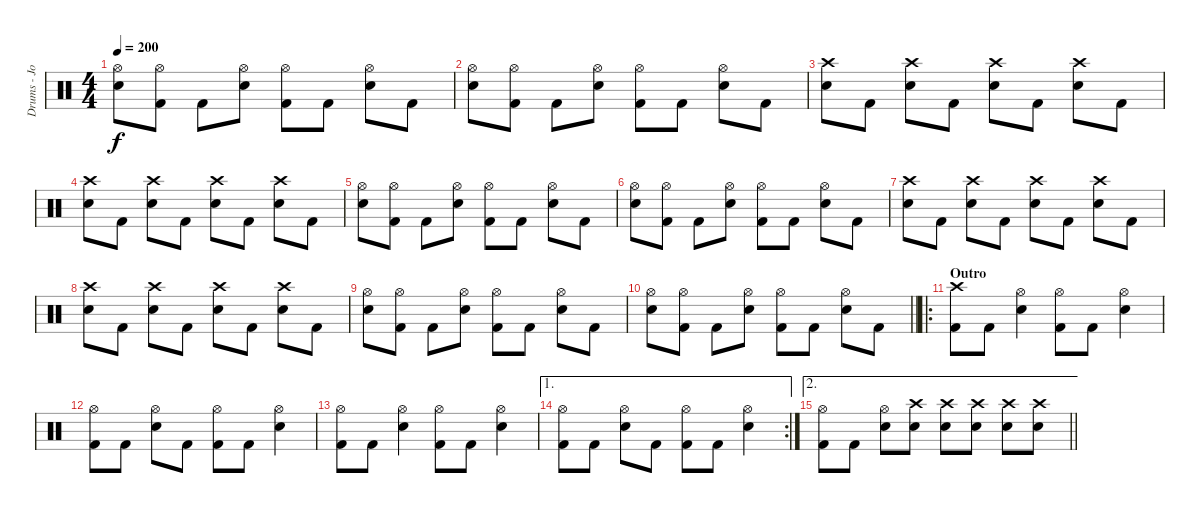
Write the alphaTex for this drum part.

\track ("Drums - John" "Drums - Jo") {instrument percussion}
\staff {score}
\articulation defaults
\ts (4 4)
\tempo 200
\clef neutral
\ks c
("Hi-Hat (open)" "Electric Snare (hit)").8{dy f} ("Hi-Hat (open)" "Kick (hit) 2").8 "Kick (hit) 2".8 ("Hi-Hat (open)" "Electric Snare (hit)").8 ("Hi-Hat (open)" "Kick (hit) 2").8 "Kick (hit) 2".8 ("Hi-Hat (open)" "Electric Snare (hit)").8 "Kick (hit) 2".8 |
("Hi-Hat (open)" "Electric Snare (hit)").8 ("Hi-Hat (open)" "Kick (hit) 2").8 "Kick (hit) 2".8 ("Hi-Hat (open)" "Electric Snare (hit)").8 ("Hi-Hat (open)" "Kick (hit) 2").8 "Kick (hit) 2".8 ("Hi-Hat (open)" "Electric Snare (hit)").8 "Kick (hit) 2".8 |
("Crash high (hit)" "Electric Snare (hit)").8 "Kick (hit) 2".8 ("Crash high (hit)" "Electric Snare (hit)").8 "Kick (hit) 2".8 ("Crash high (hit)" "Electric Snare (hit)").8 "Kick (hit) 2".8 ("Crash high (hit)" "Electric Snare (hit)").8 "Kick (hit) 2".8 |
("Crash high (hit)" "Electric Snare (hit)").8 "Kick (hit) 2".8 ("Crash high (hit)" "Electric Snare (hit)").8 "Kick (hit) 2".8 ("Crash high (hit)" "Electric Snare (hit)").8 "Kick (hit) 2".8 ("Crash high (hit)" "Electric Snare (hit)").8 "Kick (hit) 2".8 |
("Hi-Hat (open)" "Electric Snare (hit)").8 ("Hi-Hat (open)" "Kick (hit) 2").8 "Kick (hit) 2".8 ("Hi-Hat (open)" "Electric Snare (hit)").8 ("Hi-Hat (open)" "Kick (hit) 2").8 "Kick (hit) 2".8 ("Hi-Hat (open)" "Electric Snare (hit)").8 "Kick (hit) 2".8 |
("Hi-Hat (open)" "Electric Snare (hit)").8 ("Hi-Hat (open)" "Kick (hit) 2").8 "Kick (hit) 2".8 ("Hi-Hat (open)" "Electric Snare (hit)").8 ("Hi-Hat (open)" "Kick (hit) 2").8 "Kick (hit) 2".8 ("Hi-Hat (open)" "Electric Snare (hit)").8 "Kick (hit) 2".8 |
("Crash high (hit)" "Electric Snare (hit)").8 "Kick (hit) 2".8 ("Crash high (hit)" "Electric Snare (hit)").8 "Kick (hit) 2".8 ("Crash high (hit)" "Electric Snare (hit)").8 "Kick (hit) 2".8 ("Crash high (hit)" "Electric Snare (hit)").8 "Kick (hit) 2".8 |
("Crash high (hit)" "Electric Snare (hit)").8 "Kick (hit) 2".8 ("Crash high (hit)" "Electric Snare (hit)").8 "Kick (hit) 2".8 ("Crash high (hit)" "Electric Snare (hit)").8 "Kick (hit) 2".8 ("Crash high (hit)" "Electric Snare (hit)").8 "Kick (hit) 2".8 |
("Hi-Hat (open)" "Electric Snare (hit)").8 ("Hi-Hat (open)" "Kick (hit) 2").8 "Kick (hit) 2".8 ("Hi-Hat (open)" "Electric Snare (hit)").8 ("Hi-Hat (open)" "Kick (hit) 2").8 "Kick (hit) 2".8 ("Hi-Hat (open)" "Electric Snare (hit)").8 "Kick (hit) 2".8 |
\barLineRight lightlight
("Hi-Hat (open)" "Electric Snare (hit)").8 ("Hi-Hat (open)" "Kick (hit) 2").8 "Kick (hit) 2".8 ("Hi-Hat (open)" "Electric Snare (hit)").8 ("Hi-Hat (open)" "Kick (hit) 2").8 "Kick (hit) 2".8 ("Hi-Hat (open)" "Electric Snare (hit)").8 "Kick (hit) 2".8 |
\ro
\section ("" "Outro")
("Crash high (hit)" "Kick (hit) 2").8 "Kick (hit) 2".8 ("Electric Snare (hit)" "Hi-Hat (open)").4 ("Kick (hit) 2" "Hi-Hat (open)").8 "Kick (hit) 2".8 ("Electric Snare (hit)" "Hi-Hat (open)").4 |
("Kick (hit) 2" "Hi-Hat (open)").8 "Kick (hit) 2".8 ("Electric Snare (hit)" "Hi-Hat (open)").8 "Kick (hit) 2".8 ("Kick (hit) 2" "Hi-Hat (open)").8 "Kick (hit) 2".8 ("Electric Snare (hit)" "Hi-Hat (open)").4 |
("Kick (hit) 2" "Hi-Hat (open)").8 "Kick (hit) 2".8 ("Electric Snare (hit)" "Hi-Hat (open)").4 ("Kick (hit) 2" "Hi-Hat (open)").8 "Kick (hit) 2".8 ("Electric Snare (hit)" "Hi-Hat (open)").4 |
\ae 1
\rc 2
("Kick (hit) 2" "Hi-Hat (open)").8 "Kick (hit) 2".8 ("Electric Snare (hit)" "Hi-Hat (open)").8 "Kick (hit) 2".8 ("Kick (hit) 2" "Hi-Hat (open)").8 "Kick (hit) 2".8 ("Electric Snare (hit)" "Hi-Hat (open)").4 |
\ae 2
\barLineRight lightlight
("Kick (hit) 2" "Hi-Hat (open)").8 "Kick (hit) 2".8 ("Electric Snare (hit)" "Hi-Hat (open)").8 ("Crash high (hit)" "Electric Snare (hit)").8 ("Crash high (hit)" "Electric Snare (hit)").8 ("Crash high (hit)" "Electric Snare (hit)").8 ("Crash high (hit)" "Electric Snare (hit)").8 ("Crash high (hit)" "Electric Snare (hit)").8
